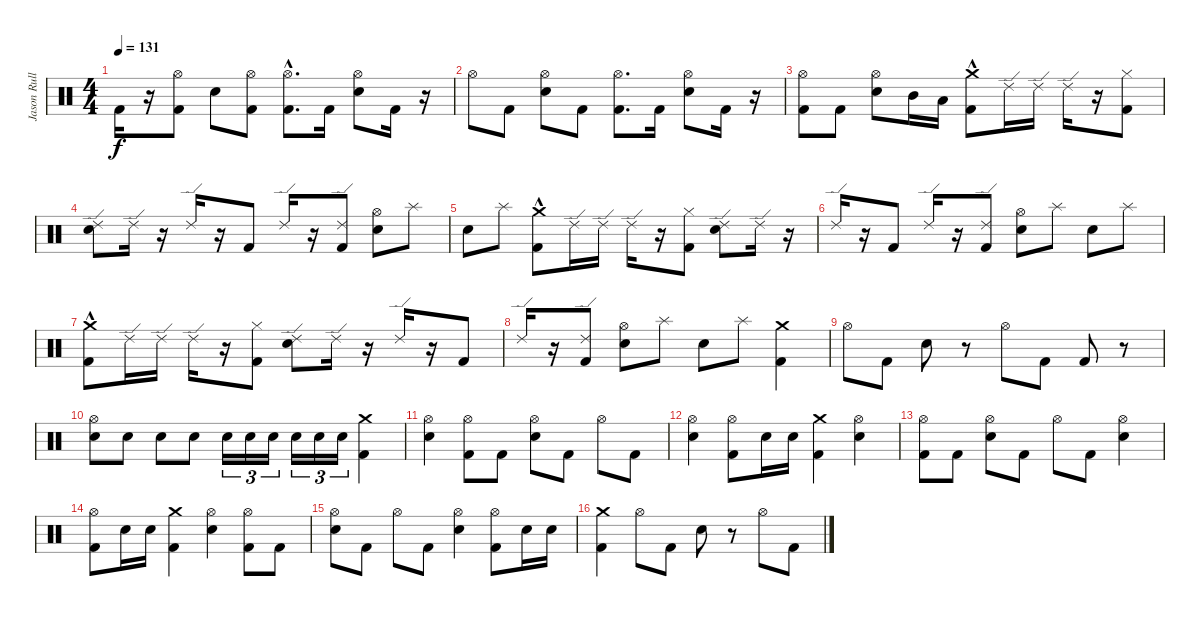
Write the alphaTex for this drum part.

\track ("Jason Rullo (Drums)" "Jason Rull") {instrument percussion}
\staff {score}
\articulation defaults
\ts (4 4)
\tempo 131
\clef neutral
\ks c "Kick (hit) 2".16{dy f}
r.16 ("Kick (hit) 2" "Hi-Hat (open)").8 "Electric Snare (hit)".8 ("Kick (hit) 2" "Hi-Hat (open)").8 ("Hi-Hat (open)" "Kick (hit) 2"{hac}).8{d} "Kick (hit) 2".16 ("Hi-Hat (open)" "Electric Snare (hit)").8 "Kick (hit) 2".16 r.16 |
"Hi-Hat (open)".8 "Kick (hit) 2".8 ("Hi-Hat (open)" "Electric Snare (hit)").8 "Kick (hit) 2".8 ("Hi-Hat (open)" "Kick (hit) 2").8{d} "Kick (hit) 2".16 ("Electric Snare (hit)" "Hi-Hat (open)").8 "Kick (hit) 2".16 r.16 |
("Kick (hit) 2" "Hi-Hat (open)").8 "Kick (hit) 2".8 ("Electric Snare (hit)" "Hi-Hat (open)").8 "Mid Tom (hit)".16 "Low Tom (hit)".16 ("Crash medium (hit)" "Kick (hit) 2"{hac}).8 "Ride (edge) 2".16 "Ride (edge) 2".16 "Ride (edge) 2".16 r.16 ("Hi-Hat (closed)" "Kick (hit) 2").8 |
("Ride (edge) 2" "Electric Snare (hit)").8 "Ride (edge) 2".16 r.16 "Ride (edge) 2".16 r.16 "Kick (hit) 2".8 "Ride (edge) 2".16 r.16 ("Ride (edge) 2" "Kick (hit) 2").8 ("Hi-Hat (open)" "Electric Snare (hit)").8 "Splash (hit)".8 |
"Electric Snare (hit)".8 "Splash (hit)".8 ("Crash medium (hit)" "Kick (hit) 2"{hac}).8 "Ride (edge) 2".16 "Ride (edge) 2".16 "Ride (edge) 2".16 r.16 ("Hi-Hat (closed)" "Kick (hit) 2").8 ("Ride (edge) 2" "Electric Snare (hit)").8 "Ride (edge) 2".16 r.16 |
"Ride (edge) 2".16 r.16 "Kick (hit) 2".8 "Ride (edge) 2".16 r.16 ("Ride (edge) 2" "Kick (hit) 2").8 ("Hi-Hat (open)" "Electric Snare (hit)").8 "Splash (hit)".8 "Electric Snare (hit)".8 "Splash (hit)".8 |
("Crash medium (hit)" "Kick (hit) 2"{hac}).8 "Ride (edge) 2".16 "Ride (edge) 2".16 "Ride (edge) 2".16 r.16 ("Hi-Hat (closed)" "Kick (hit) 2").8 ("Ride (edge) 2" "Electric Snare (hit)").8 "Ride (edge) 2".16 r.16 "Ride (edge) 2".16 r.16 "Kick (hit) 2".8 |
"Ride (edge) 2".16 r.16 ("Ride (edge) 2" "Kick (hit) 2").8 ("Hi-Hat (open)" "Electric Snare (hit)").8 "Splash (hit)".8 "Electric Snare (hit)".8 "Splash (hit)".8 ("Crash medium (hit)" "Kick (hit) 2").4 |
"Hi-Hat (open)".8 "Kick (hit) 2".8 "Electric Snare (hit)".8 r.8 "Hi-Hat (open)".8 "Kick (hit) 2".8 "Kick (hit) 2".8 r.8 |
("Hi-Hat (open)" "Electric Snare (hit)").8{volume 8} "Electric Snare (hit)".8{volume 10} "Electric Snare (hit)".8{volume 12} "Electric Snare (hit)".8{volume 14} "Electric Snare (hit)".16{tu (3 2) volume 16} "Electric Snare (hit)".16{tu (3 2)} "Electric Snare (hit)".16{tu (3 2)} "Electric Snare (hit)".16{tu (3 2)} "Electric Snare (hit)".16{tu (3 2)} "Electric Snare (hit)".16{tu (3 2)} ("Crash medium (hit)" "Kick (hit) 2").4 |
("Hi-Hat (open)" "Electric Snare (hit)").4 ("Hi-Hat (open)" "Kick (hit) 2").8 "Kick (hit) 2".8 ("Hi-Hat (open)" "Electric Snare (hit)").8 "Kick (hit) 2".8 "Hi-Hat (open)".8 "Kick (hit) 2".8 |
("Hi-Hat (open)" "Electric Snare (hit)").4 ("Hi-Hat (open)" "Kick (hit) 2").8 "Electric Snare (hit)".16 "Electric Snare (hit)".16 ("Crash medium (hit)" "Kick (hit) 2").4 ("Hi-Hat (open)" "Electric Snare (hit)").4 |
("Hi-Hat (open)" "Kick (hit) 2").8 "Kick (hit) 2".8 ("Hi-Hat (open)" "Electric Snare (hit)").8 "Kick (hit) 2".8 "Hi-Hat (open)".8 "Kick (hit) 2".8 ("Hi-Hat (open)" "Electric Snare (hit)").4 |
("Hi-Hat (open)" "Kick (hit) 2").8 "Electric Snare (hit)".16 "Electric Snare (hit)".16 ("Crash medium (hit)" "Kick (hit) 2").4 ("Hi-Hat (open)" "Electric Snare (hit)").4 ("Hi-Hat (open)" "Kick (hit) 2").8 "Kick (hit) 2".8 |
("Hi-Hat (open)" "Electric Snare (hit)").8 "Kick (hit) 2".8 "Hi-Hat (open)".8 "Kick (hit) 2".8 ("Hi-Hat (open)" "Electric Snare (hit)").4 ("Hi-Hat (open)" "Kick (hit) 2").8 "Electric Snare (hit)".16 "Electric Snare (hit)".16 |
("Crash medium (hit)" "Kick (hit) 2").4 "Hi-Hat (open)".8 "Kick (hit) 2".8 "Electric Snare (hit)".8 r.8 "Hi-Hat (open)".8 "Kick (hit) 2".8
